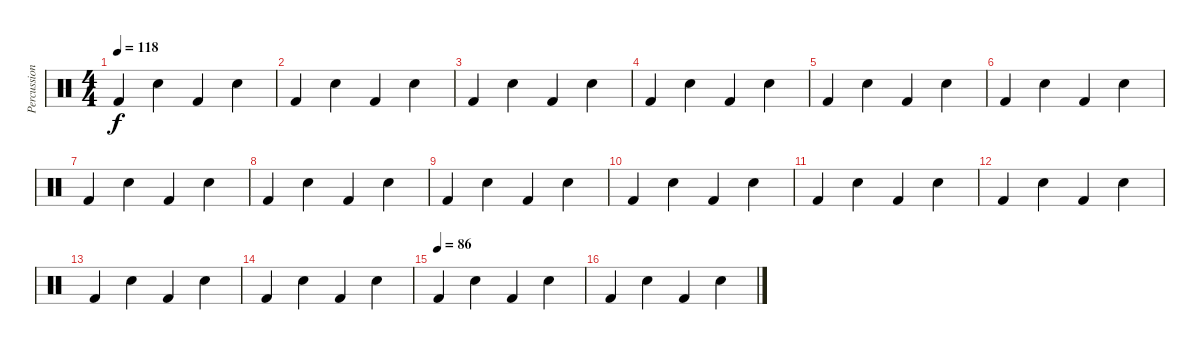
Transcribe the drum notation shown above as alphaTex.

\track ("Percussions" "Percussion") {instrument percussion}
\staff {score}
\articulation defaults
\ts (4 4)
\tempo 118
\clef neutral
\ks c "Kick (hit) 2".4{dy f} "Snare (hit) 2".4 "Kick (hit) 2".4 "Snare (hit) 2".4
|
"Kick (hit) 2".4 "Snare (hit) 2".4 "Kick (hit) 2".4 "Snare (hit) 2".4 |
"Kick (hit) 2".4 "Snare (hit) 2".4 "Kick (hit) 2".4 "Snare (hit) 2".4 |
"Kick (hit) 2".4 "Snare (hit) 2".4 "Kick (hit) 2".4 "Snare (hit) 2".4 |
"Kick (hit) 2".4 "Snare (hit) 2".4 "Kick (hit) 2".4 "Snare (hit) 2".4 |
"Kick (hit) 2".4 "Snare (hit) 2".4 "Kick (hit) 2".4 "Snare (hit) 2".4 |
"Kick (hit) 2".4 "Snare (hit) 2".4 "Kick (hit) 2".4 "Snare (hit) 2".4 |
"Kick (hit) 2".4 "Snare (hit) 2".4 "Kick (hit) 2".4 "Snare (hit) 2".4 |
"Kick (hit) 2".4 "Snare (hit) 2".4 "Kick (hit) 2".4 "Snare (hit) 2".4 |
"Kick (hit) 2".4 "Snare (hit) 2".4 "Kick (hit) 2".4 "Snare (hit) 2".4 |
"Kick (hit) 2".4 "Snare (hit) 2".4 "Kick (hit) 2".4 "Snare (hit) 2".4 |
"Kick (hit) 2".4 "Snare (hit) 2".4 "Kick (hit) 2".4 "Snare (hit) 2".4 |
"Kick (hit) 2".4 "Snare (hit) 2".4 "Kick (hit) 2".4 "Snare (hit) 2".4 |
"Kick (hit) 2".4 "Snare (hit) 2".4 "Kick (hit) 2".4 "Snare (hit) 2".4 |
\tempo (86)
"Kick (hit) 2".4 "Snare (hit) 2".4 "Kick (hit) 2".4 "Snare (hit) 2".4 |
"Kick (hit) 2".4 "Snare (hit) 2".4 "Kick (hit) 2".4 "Snare (hit) 2".4
